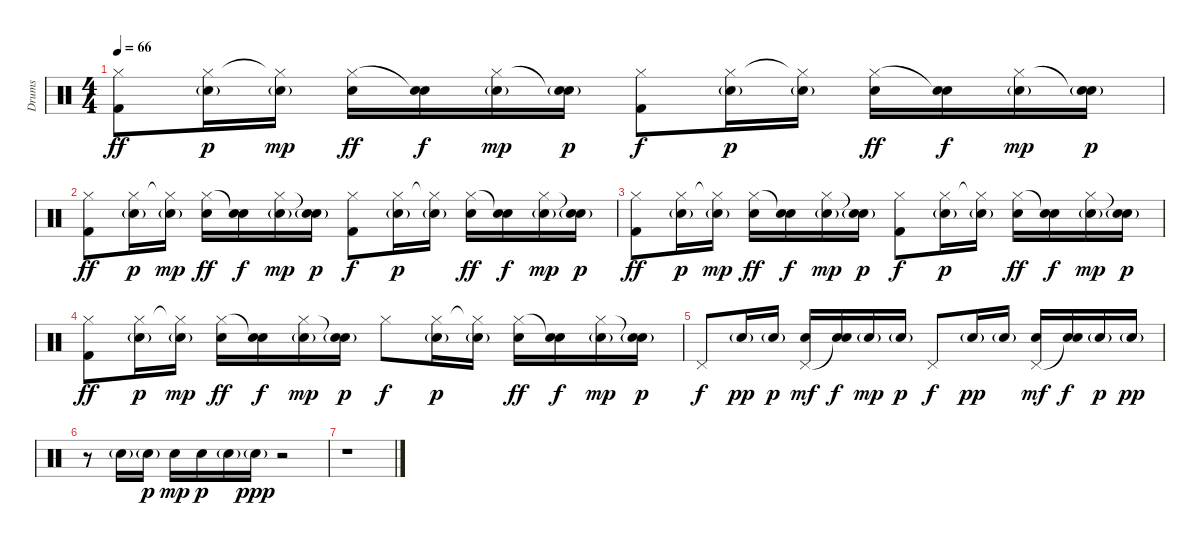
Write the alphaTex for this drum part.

\track ("Drums" "Drums") {instrument percussion}
\staff {score}
\articulation defaults
\ts (4 4)
\tempo 66
\clef neutral
\ks c
("Hi-Hat (closed)" "Kick (hit) 2").8{dy ff} ("Hi-Hat (closed)" "Snare (hit) 2"{g}).16{dy p} ("Hi-Hat (closed)"{t} "Snare (hit) 2"{g}).16{dy mp} ("Hi-Hat (closed)" "Snare (hit) 2").16{dy ff} ("Snare (hit)"{t} "Snare (hit) 2").16{dy f} ("Hi-Hat (closed)" "Snare (hit) 2"{g}).16{dy mp} ("Snare (hit)"{t} "Snare (hit) 2"{g}).16{dy p} ("Hi-Hat (closed)" "Kick (hit) 2").8{dy f} ("Hi-Hat (closed)" "Snare (hit) 2"{g}).16{dy p} ("Hi-Hat (closed)"{t} "Snare (hit) 2"{g}).16 ("Hi-Hat (closed)" "Snare (hit) 2").16{dy ff} ("Snare (hit)"{t} "Snare (hit) 2").16{dy f} ("Hi-Hat (closed)" "Snare (hit) 2"{g}).16{dy mp} ("Snare (hit)"{t} "Snare (hit) 2"{g}).16{dy p} |
("Hi-Hat (closed)" "Kick (hit) 2").8{dy ff} ("Hi-Hat (closed)" "Snare (hit) 2"{g}).16{dy p} ("Hi-Hat (closed)"{t} "Snare (hit) 2"{g}).16{dy mp} ("Hi-Hat (closed)" "Snare (hit) 2").16{dy ff} ("Snare (hit)"{t} "Snare (hit) 2").16{dy f} ("Hi-Hat (closed)" "Snare (hit) 2"{g}).16{dy mp} ("Snare (hit)"{t} "Snare (hit) 2"{g}).16{dy p} ("Hi-Hat (closed)" "Kick (hit) 2").8{dy f} ("Hi-Hat (closed)" "Snare (hit) 2"{g}).16{dy p} ("Hi-Hat (closed)"{t} "Snare (hit) 2"{g}).16 ("Hi-Hat (closed)" "Snare (hit) 2").16{dy ff} ("Snare (hit)"{t} "Snare (hit) 2").16{dy f} ("Hi-Hat (closed)" "Snare (hit) 2"{g}).16{dy mp} ("Snare (hit)"{t} "Snare (hit) 2"{g}).16{dy p} |
("Hi-Hat (closed)" "Kick (hit) 2").8{dy ff} ("Hi-Hat (closed)" "Snare (hit) 2"{g}).16{dy p} ("Hi-Hat (closed)"{t} "Snare (hit) 2"{g}).16{dy mp} ("Hi-Hat (closed)" "Snare (hit) 2").16{dy ff} ("Snare (hit)"{t} "Snare (hit) 2").16{dy f} ("Hi-Hat (closed)" "Snare (hit) 2"{g}).16{dy mp} ("Snare (hit)"{t} "Snare (hit) 2"{g}).16{dy p} ("Hi-Hat (closed)" "Kick (hit) 2").8{dy f} ("Hi-Hat (closed)" "Snare (hit) 2"{g}).16{dy p} ("Hi-Hat (closed)"{t} "Snare (hit) 2"{g}).16 ("Hi-Hat (closed)" "Snare (hit) 2").16{dy ff} ("Snare (hit)"{t} "Snare (hit) 2").16{dy f} ("Hi-Hat (closed)" "Snare (hit) 2"{g}).16{dy mp} ("Snare (hit)"{t} "Snare (hit) 2"{g}).16{dy p} |
("Hi-Hat (closed)" "Kick (hit) 2").8{dy ff} ("Hi-Hat (closed)" "Snare (hit) 2"{g}).16{dy p} ("Hi-Hat (closed)"{t} "Snare (hit) 2"{g}).16{dy mp} ("Hi-Hat (closed)" "Snare (hit) 2").16{dy ff} ("Snare (hit)"{t} "Snare (hit) 2").16{dy f} ("Hi-Hat (closed)" "Snare (hit) 2"{g}).16{dy mp} ("Snare (hit)"{t} "Snare (hit) 2"{g}).16{dy p} "Hi-Hat (closed)".8{dy f} ("Hi-Hat (closed)" "Snare (hit) 2"{g}).16{dy p} ("Hi-Hat (closed)"{t} "Snare (hit) 2"{g}).16 ("Hi-Hat (closed)" "Snare (hit) 2").16{dy ff} ("Snare (hit)"{t} "Snare (hit) 2").16{dy f} ("Hi-Hat (closed)" "Snare (hit) 2"{g}).16{dy mp} ("Snare (hit)"{t} "Snare (hit) 2"{g}).16{dy p} |
"Pedal Hi-Hat (hit)".8{dy f} "Snare (hit) 2"{g}.16{dy pp} "Snare (hit) 2"{g}.16{dy p} ("Pedal Hi-Hat (hit)" "Snare (hit) 2").16{dy mf} ("Snare (hit)"{t} "Snare (hit) 2").16{dy f} "Snare (hit) 2"{g}.16{dy mp} "Snare (hit) 2"{g}.16{dy p} "Pedal Hi-Hat (hit)".8{dy f} "Snare (hit) 2"{g}.16{dy pp} "Snare (hit) 2"{g}.16 ("Pedal Hi-Hat (hit)" "Snare (hit) 2").16{dy mf} ("Snare (hit)"{t} "Snare (hit) 2").16{dy f} "Snare (hit) 2"{g}.16{dy p} "Snare (hit) 2"{g}.16{dy pp} |
r.8 "Snare (hit) 2"{g}.16 "Snare (hit) 2"{g}.16{dy p} "Snare (hit) 2".16{dy mp} "Snare (hit) 2".16{dy p} "Snare (hit) 2"{g}.16 "Snare (hit) 2"{g}.16{dy ppp} r.2 |
r.1
